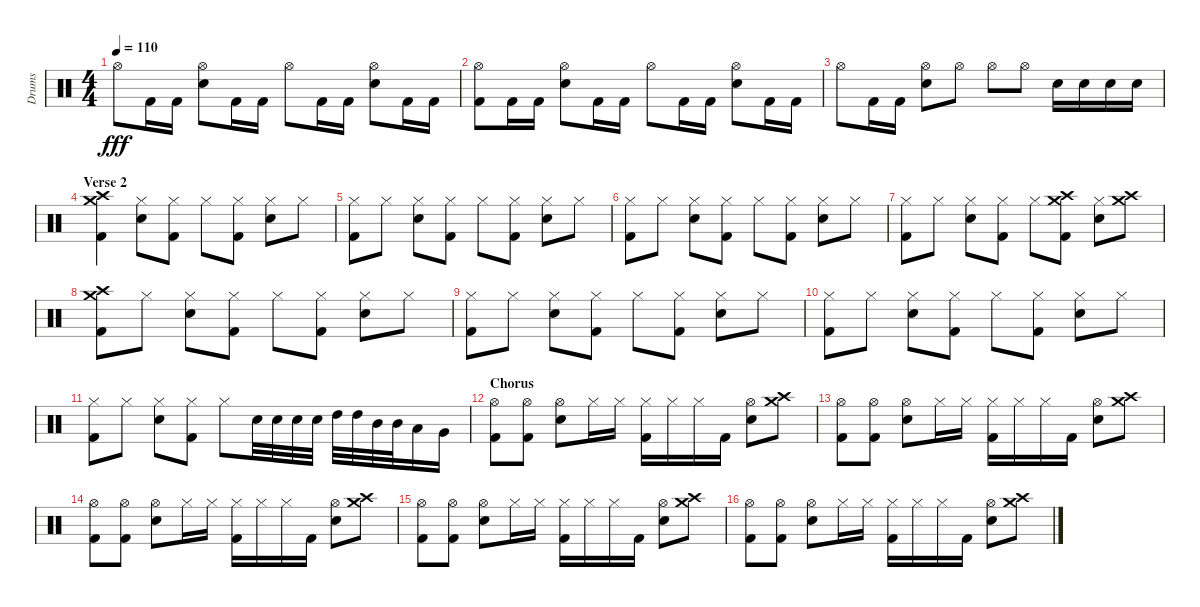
\track ("Drums" "Drums") {instrument percussion}
\staff {score}
\articulation defaults
\ts (4 4)
\tempo 110
\clef neutral
\ks c "Hi-Hat (open)".8{dy fff} "Kick (hit) 2".16 "Kick (hit) 2".16
("Hi-Hat (open)" "Electric Snare (hit)").8 "Kick (hit) 2".16 "Kick (hit) 2".16 "Hi-Hat (open)".8 "Kick (hit) 2".16 "Kick (hit) 2".16 ("Hi-Hat (open)" "Electric Snare (hit)").8 "Kick (hit) 2".16 "Kick (hit) 2".16 |
("Hi-Hat (open)" "Kick (hit) 2").8 "Kick (hit) 2".16 "Kick (hit) 2".16 ("Hi-Hat (open)" "Electric Snare (hit)").8 "Kick (hit) 2".16 "Kick (hit) 2".16 "Hi-Hat (open)".8 "Kick (hit) 2".16 "Kick (hit) 2".16 ("Hi-Hat (open)" "Electric Snare (hit)").8 "Kick (hit) 2".16 "Kick (hit) 2".16 |
"Hi-Hat (open)".8 "Kick (hit) 2".16 "Kick (hit) 2".16 ("Hi-Hat (open)" "Electric Snare (hit)").8 "Hi-Hat (open)".8 "Hi-Hat (open)".8 "Hi-Hat (open)".8 "Electric Snare (hit)".16 "Electric Snare (hit)".16 "Electric Snare (hit)".16 "Electric Snare (hit)".16 |
\section ("" "Verse 2")
("Crash high (hit)" "Crash medium (hit)" "Kick (hit) 2").4 ("Hi-Hat (closed)" "Electric Snare (hit)").8 ("Hi-Hat (closed)" "Kick (hit) 2").8 "Hi-Hat (closed)".8 ("Hi-Hat (closed)" "Kick (hit) 2").8 ("Hi-Hat (closed)" "Electric Snare (hit)").8 "Hi-Hat (closed)".8 |
("Hi-Hat (closed)" "Kick (hit) 2").8 "Hi-Hat (closed)".8 ("Hi-Hat (closed)" "Electric Snare (hit)").8 ("Hi-Hat (closed)" "Kick (hit) 2").8 "Hi-Hat (closed)".8 ("Hi-Hat (closed)" "Kick (hit) 2").8 ("Hi-Hat (closed)" "Electric Snare (hit)").8 "Hi-Hat (closed)".8 |
("Hi-Hat (closed)" "Kick (hit) 2").8 "Hi-Hat (closed)".8 ("Hi-Hat (closed)" "Electric Snare (hit)").8 ("Hi-Hat (closed)" "Kick (hit) 2").8 "Hi-Hat (closed)".8 ("Hi-Hat (closed)" "Kick (hit) 2").8 ("Hi-Hat (closed)" "Electric Snare (hit)").8 "Hi-Hat (closed)".8 |
("Hi-Hat (closed)" "Kick (hit) 2").8 "Hi-Hat (closed)".8 ("Hi-Hat (closed)" "Electric Snare (hit)").8 ("Hi-Hat (closed)" "Kick (hit) 2").8 "Hi-Hat (closed)".8 ("Crash high (hit)" "Crash medium (hit)" "Kick (hit) 2").8 ("Hi-Hat (closed)" "Electric Snare (hit)").8 ("Crash high (hit)" "Crash medium (hit)").8 |
("Crash high (hit)" "Crash medium (hit)" "Kick (hit) 2").8 "Hi-Hat (closed)".8 ("Hi-Hat (closed)" "Electric Snare (hit)").8 ("Hi-Hat (closed)" "Kick (hit) 2").8 "Hi-Hat (closed)".8 ("Hi-Hat (closed)" "Kick (hit) 2").8 ("Hi-Hat (closed)" "Electric Snare (hit)").8 "Hi-Hat (closed)".8 |
("Hi-Hat (closed)" "Kick (hit) 2").8 "Hi-Hat (closed)".8 ("Hi-Hat (closed)" "Electric Snare (hit)").8 ("Hi-Hat (closed)" "Kick (hit) 2").8 "Hi-Hat (closed)".8 ("Hi-Hat (closed)" "Kick (hit) 2").8 ("Hi-Hat (closed)" "Electric Snare (hit)").8 "Hi-Hat (closed)".8 |
("Hi-Hat (closed)" "Kick (hit) 2").8 "Hi-Hat (closed)".8 ("Hi-Hat (closed)" "Electric Snare (hit)").8 ("Hi-Hat (closed)" "Kick (hit) 2").8 "Hi-Hat (closed)".8 ("Hi-Hat (closed)" "Kick (hit) 2").8 ("Hi-Hat (closed)" "Electric Snare (hit)").8 "Hi-Hat (closed)".8 |
("Hi-Hat (closed)" "Kick (hit) 2").8 "Hi-Hat (closed)".8 ("Hi-Hat (closed)" "Electric Snare (hit)").8 ("Hi-Hat (closed)" "Kick (hit) 2").8 "Hi-Hat (closed)".8 "Electric Snare (hit)".32 "Electric Snare (hit)".32 "Electric Snare (hit)".32 "Electric Snare (hit)".32 "High Tom (hit)".32 "High Tom (hit)".32 "Mid Tom (hit)".32 "Mid Tom (hit)".32 "Low Tom (hit)".16 "Very Low Tom (hit)".16 |
\section ("" "Chorus")
("Hi-Hat (open)" "Kick (hit) 2").8 ("Hi-Hat (open)" "Kick (hit) 2").8 ("Hi-Hat (open)" "Electric Snare (hit)").8 "Hi-Hat (closed)".16 "Hi-Hat (closed)".16 ("Hi-Hat (closed)" "Kick (hit) 2").16 "Hi-Hat (closed)".16 "Hi-Hat (closed)".16 "Kick (hit) 2".16 ("Hi-Hat (open)" "Electric Snare (hit)").8 ("Crash high (hit)" "Crash medium (hit)").8 |
("Hi-Hat (open)" "Kick (hit) 2").8 ("Hi-Hat (open)" "Kick (hit) 2").8 ("Hi-Hat (open)" "Electric Snare (hit)").8 "Hi-Hat (closed)".16 "Hi-Hat (closed)".16 ("Hi-Hat (closed)" "Kick (hit) 2").16 "Hi-Hat (closed)".16 "Hi-Hat (closed)".16 "Kick (hit) 2".16 ("Hi-Hat (open)" "Electric Snare (hit)").8 ("Crash high (hit)" "Crash medium (hit)").8 |
("Hi-Hat (open)" "Kick (hit) 2").8 ("Hi-Hat (open)" "Kick (hit) 2").8 ("Hi-Hat (open)" "Electric Snare (hit)").8 "Hi-Hat (closed)".16 "Hi-Hat (closed)".16 ("Hi-Hat (closed)" "Kick (hit) 2").16 "Hi-Hat (closed)".16 "Hi-Hat (closed)".16 "Kick (hit) 2".16 ("Hi-Hat (open)" "Electric Snare (hit)").8 ("Crash high (hit)" "Crash medium (hit)").8 |
("Hi-Hat (open)" "Kick (hit) 2").8 ("Hi-Hat (open)" "Kick (hit) 2").8 ("Hi-Hat (open)" "Electric Snare (hit)").8 "Hi-Hat (closed)".16 "Hi-Hat (closed)".16 ("Hi-Hat (closed)" "Kick (hit) 2").16 "Hi-Hat (closed)".16 "Hi-Hat (closed)".16 "Kick (hit) 2".16 ("Hi-Hat (open)" "Electric Snare (hit)").8 ("Crash high (hit)" "Crash medium (hit)").8 |
("Hi-Hat (open)" "Kick (hit) 2").8 ("Hi-Hat (open)" "Kick (hit) 2").8 ("Hi-Hat (open)" "Electric Snare (hit)").8 "Hi-Hat (closed)".16 "Hi-Hat (closed)".16 ("Hi-Hat (closed)" "Kick (hit) 2").16 "Hi-Hat (closed)".16 "Hi-Hat (closed)".16 "Kick (hit) 2".16 ("Hi-Hat (open)" "Electric Snare (hit)").8 ("Crash high (hit)" "Crash medium (hit)").8
